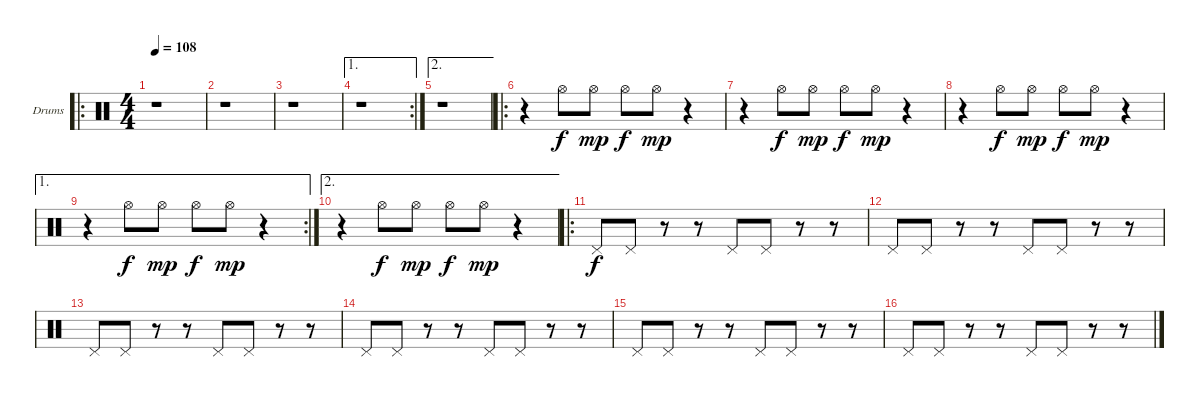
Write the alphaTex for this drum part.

\bracketExtendMode groupsimilarinstruments
\firstSystemTrackNameOrientation horizontal
\otherSystemsTrackNameOrientation horizontal
\track ("Drumkit" "Drums") {instrument percussion}
\staff {score}
\articulation defaults
\ro
\ts (4 4)
\tempo 108
\clef neutral
\ks c
r.1{dy f} |
r.1 |
r.1 |
\ae 1
\rc 2
r.1 |
\ae 2
r.1 |
\ro
r.4 "Hi-Hat (open)".8 "Hi-Hat (open)".8{dy mp} "Hi-Hat (open)".8{dy f} "Hi-Hat (open)".8{dy mp} r.4 |
r.4 "Hi-Hat (open)".8{dy f} "Hi-Hat (open)".8{dy mp} "Hi-Hat (open)".8{dy f} "Hi-Hat (open)".8{dy mp} r.4 |
r.4 "Hi-Hat (open)".8{dy f} "Hi-Hat (open)".8{dy mp} "Hi-Hat (open)".8{dy f} "Hi-Hat (open)".8{dy mp} r.4 |
\ae 1
\rc 2
r.4 "Hi-Hat (open)".8{dy f} "Hi-Hat (open)".8{dy mp} "Hi-Hat (open)".8{dy f} "Hi-Hat (open)".8{dy mp} r.4 |
\ae 2
r.4 "Hi-Hat (open)".8{dy f} "Hi-Hat (open)".8{dy mp} "Hi-Hat (open)".8{dy f} "Hi-Hat (open)".8{dy mp} r.4 |
\ro "Pedal Hi-Hat (hit)".8{dy f} "Pedal Hi-Hat (hit)".8
r.8 r.8 "Pedal Hi-Hat (hit)".8 "Pedal Hi-Hat (hit)".8 r.8 r.8 |
"Pedal Hi-Hat (hit)".8 "Pedal Hi-Hat (hit)".8 r.8 r.8 "Pedal Hi-Hat (hit)".8 "Pedal Hi-Hat (hit)".8 r.8 r.8 |
"Pedal Hi-Hat (hit)".8 "Pedal Hi-Hat (hit)".8 r.8 r.8 "Pedal Hi-Hat (hit)".8 "Pedal Hi-Hat (hit)".8 r.8 r.8 |
"Pedal Hi-Hat (hit)".8 "Pedal Hi-Hat (hit)".8 r.8 r.8 "Pedal Hi-Hat (hit)".8 "Pedal Hi-Hat (hit)".8 r.8 r.8 |
"Pedal Hi-Hat (hit)".8 "Pedal Hi-Hat (hit)".8 r.8 r.8 "Pedal Hi-Hat (hit)".8 "Pedal Hi-Hat (hit)".8 r.8 r.8 |
"Pedal Hi-Hat (hit)".8 "Pedal Hi-Hat (hit)".8 r.8 r.8 "Pedal Hi-Hat (hit)".8 "Pedal Hi-Hat (hit)".8 r.8 r.8
